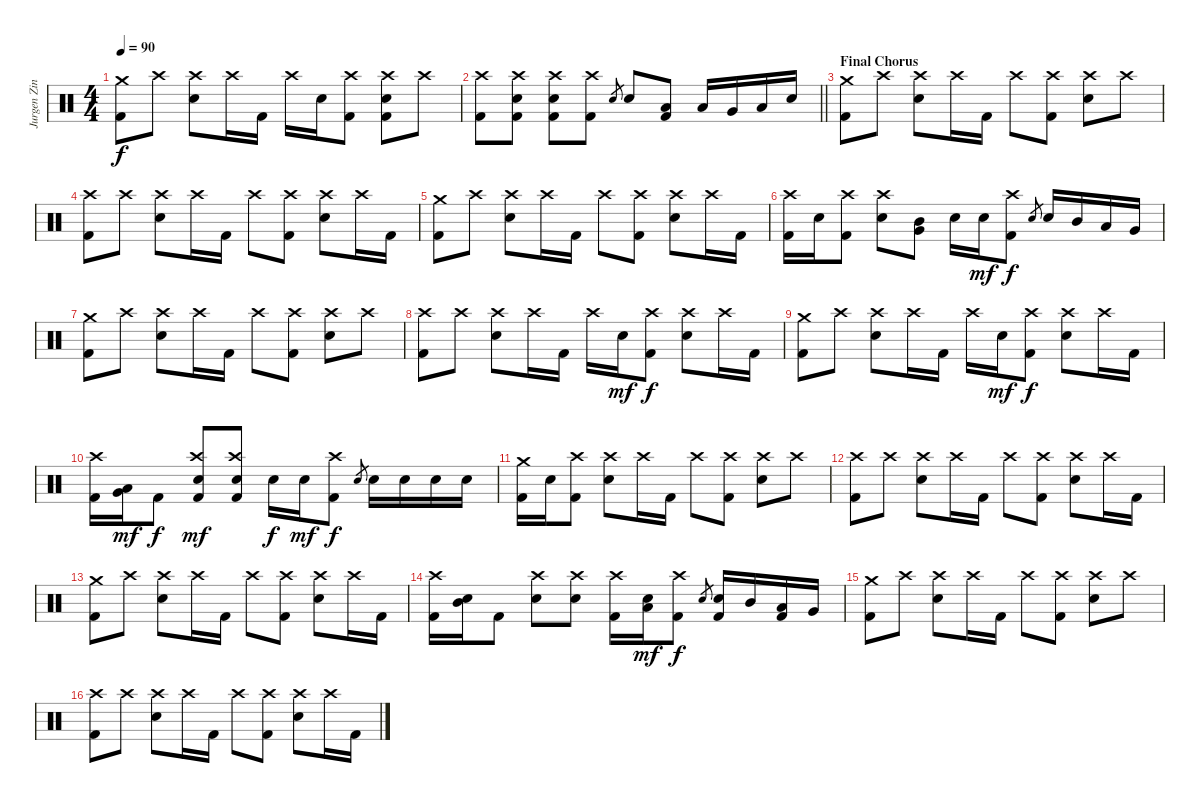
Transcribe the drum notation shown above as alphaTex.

\track ("Jurgen Zing" "Jurgen Zin") {instrument percussion}
\staff {score}
\articulation defaults
\ts (4 4)
\tempo 90
\clef neutral
\ks c
("Crash medium (hit)" "Kick (hit) 2").8{dy f} "Crash high (hit)".8 ("Crash high (hit)" "Electric Snare (hit)").8 "Crash high (hit)".16 "Kick (hit) 2".16 "Crash high (hit)".16 "Electric Snare (hit)".16 ("Crash high (hit)" "Kick (hit) 2").8 ("Crash high (hit)" "Electric Snare (hit)" "Kick (hit) 2").8 "Crash high (hit)".8 |
\barLineRight lightlight
("Crash high (hit)" "Kick (hit) 2").8 ("Crash high (hit)" "Electric Snare (hit)" "Kick (hit) 2").8 ("Crash high (hit)" "Electric Snare (hit)" "Kick (hit) 2").8 ("Crash high (hit)" "Kick (hit) 2").8 "Electric Snare (hit)".8{gr} "Electric Snare (hit)".8 ("Low Floor Tom (hit)" "Kick (hit) 2").8 "Low Tom (hit)".16 "Very Low Tom (hit)".16 "Low Floor Tom (hit)".16 "Electric Snare (hit)".16 |
\section ("" "Final Chorus")
("Crash medium (hit)" "Kick (hit) 2").8 "Crash high (hit)".8 ("Crash high (hit)" "Electric Snare (hit)").8 "Crash high (hit)".16 "Kick (hit) 2".16 "Crash high (hit)".8 ("Crash high (hit)" "Kick (hit) 2").8 ("Crash high (hit)" "Electric Snare (hit)").8 "Crash high (hit)".8 |
("Crash high (hit)" "Kick (hit) 2").8 "Crash high (hit)".8 ("Crash high (hit)" "Electric Snare (hit)").8 "Crash high (hit)".16 "Kick (hit) 2".16 "Crash high (hit)".8 ("Crash high (hit)" "Kick (hit) 2").8 ("Crash high (hit)" "Electric Snare (hit)").8 "Crash high (hit)".16 "Kick (hit) 2".16 |
("Crash medium (hit)" "Kick (hit) 2").8 "Crash high (hit)".8 ("Crash high (hit)" "Electric Snare (hit)").8 "Crash high (hit)".16 "Kick (hit) 2".16 "Crash high (hit)".8 ("Crash high (hit)" "Kick (hit) 2").8 ("Crash high (hit)" "Electric Snare (hit)").8 "Crash high (hit)".16 "Kick (hit) 2".16 |
("Crash high (hit)" "Kick (hit) 2").16 "Electric Snare (hit)".16 ("Crash high (hit)" "Kick (hit) 2").8 ("Crash high (hit)" "Electric Snare (hit)").8 ("Mid Tom (hit)" "Very Low Tom (hit)").8 "Electric Snare (hit)".16 "Electric Snare (hit)".16{dy mf} ("Crash high (hit)" "Kick (hit) 2").8{dy f} "Electric Snare (hit)".8{gr} "Electric Snare (hit)".16 "Mid Tom (hit)".16 "Low Tom (hit)".16 "Very Low Tom (hit)".16 |
("Crash medium (hit)" "Kick (hit) 2").8 "Crash high (hit)".8 ("Crash high (hit)" "Electric Snare (hit)").8 "Crash high (hit)".16 "Kick (hit) 2".16 "Crash high (hit)".8 ("Crash high (hit)" "Kick (hit) 2").8 ("Crash high (hit)" "Electric Snare (hit)").8 "Crash high (hit)".8 |
("Crash high (hit)" "Kick (hit) 2").8 "Crash high (hit)".8 ("Crash high (hit)" "Electric Snare (hit)").8 "Crash high (hit)".16 "Kick (hit) 2".16 "Crash high (hit)".16 "Electric Snare (hit)".16{dy mf} ("Crash high (hit)" "Kick (hit) 2").8{dy f} ("Crash high (hit)" "Electric Snare (hit)").8 "Crash high (hit)".16 "Kick (hit) 2".16 |
("Crash medium (hit)" "Kick (hit) 2").8 "Crash high (hit)".8 ("Crash high (hit)" "Electric Snare (hit)").8 "Crash high (hit)".16 "Kick (hit) 2".16 "Crash high (hit)".16 "Electric Snare (hit)".16{dy mf} ("Crash high (hit)" "Kick (hit) 2").8{dy f} ("Crash high (hit)" "Electric Snare (hit)").8 "Crash high (hit)".16 "Kick (hit) 2".16 |
("Crash high (hit)" "Kick (hit) 2").16 ("Very Low Tom (hit)" "Low Floor Tom (hit)").16{dy mf} "Kick (hit) 2".8{dy f} ("Crash high (hit)" "Electric Snare (hit)" "Kick (hit) 2").8{dy mf} ("Crash high (hit)" "Electric Snare (hit)" "Kick (hit) 2").8 "Electric Snare (hit)".16{dy f} "Electric Snare (hit)".16{dy mf} ("Crash high (hit)" "Kick (hit) 2").8{dy f} "Electric Snare (hit)".8{gr} "Electric Snare (hit)".16 "Electric Snare (hit)".16 "Electric Snare (hit)".16 "Electric Snare (hit)".16 |
("Crash medium (hit)" "Kick (hit) 2").16 "Electric Snare (hit)".16 ("Crash high (hit)" "Kick (hit) 2").8 ("Crash high (hit)" "Electric Snare (hit)").8 "Crash high (hit)".16 "Kick (hit) 2".16 "Crash high (hit)".8 ("Crash high (hit)" "Kick (hit) 2").8 ("Crash high (hit)" "Electric Snare (hit)").8 "Crash high (hit)".8 |
("Crash high (hit)" "Kick (hit) 2").8 "Crash high (hit)".8 ("Crash high (hit)" "Electric Snare (hit)").8 "Crash high (hit)".16 "Kick (hit) 2".16 "Crash high (hit)".8 ("Crash high (hit)" "Kick (hit) 2").8 ("Crash high (hit)" "Electric Snare (hit)").8 "Crash high (hit)".16 "Kick (hit) 2".16 |
("Crash medium (hit)" "Kick (hit) 2").8 "Crash high (hit)".8 ("Crash high (hit)" "Electric Snare (hit)").8 "Crash high (hit)".16 "Kick (hit) 2".16 "Crash high (hit)".8 ("Crash high (hit)" "Kick (hit) 2").8 ("Crash high (hit)" "Electric Snare (hit)").8 "Crash high (hit)".16 "Kick (hit) 2".16 |
("Crash high (hit)" "Kick (hit) 2").16 ("Mid Tom (hit)" "Electric Snare (hit)").16 "Kick (hit) 2".8 ("Crash high (hit)" "Electric Snare (hit)").8 ("Crash high (hit)" "Electric Snare (hit)").8 ("Crash high (hit)" "Kick (hit) 2").16 ("Low Tom (hit)" "Electric Snare (hit)").16{dy mf} ("Crash high (hit)" "Kick (hit) 2").8{dy f} "Electric Snare (hit)".8{gr} ("Electric Snare (hit)" "Kick (hit) 2").16 "Mid Tom (hit)".16 ("Low Tom (hit)" "Kick (hit) 2").16 "Very Low Tom (hit)".16 |
("Crash medium (hit)" "Kick (hit) 2").8 "Crash high (hit)".8 ("Crash high (hit)" "Electric Snare (hit)").8 "Crash high (hit)".16 "Kick (hit) 2".16 "Crash high (hit)".8 ("Crash high (hit)" "Kick (hit) 2").8 ("Crash high (hit)" "Electric Snare (hit)").8 "Crash high (hit)".8 |
("Crash high (hit)" "Kick (hit) 2").8 "Crash high (hit)".8 ("Crash high (hit)" "Electric Snare (hit)").8 "Crash high (hit)".16 "Kick (hit) 2".16 "Crash high (hit)".8 ("Crash high (hit)" "Kick (hit) 2").8 ("Crash high (hit)" "Electric Snare (hit)").8 "Crash high (hit)".16 "Kick (hit) 2".16
